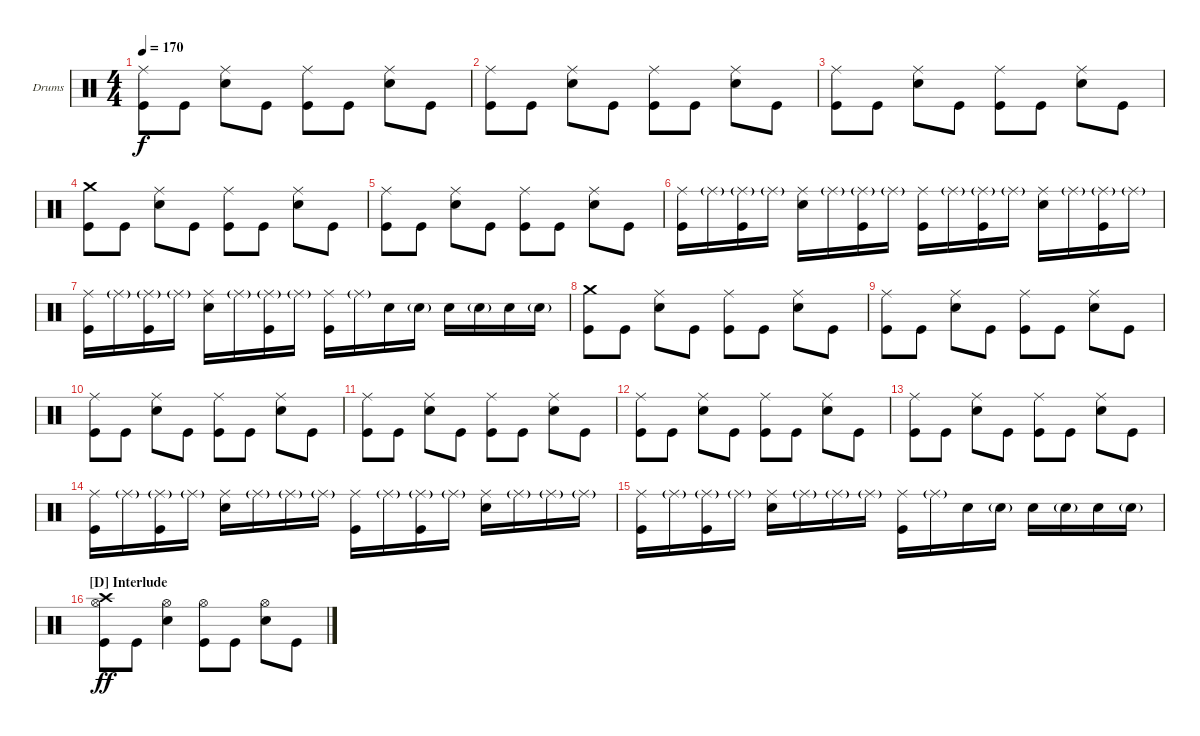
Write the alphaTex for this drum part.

\defaultSystemsLayout 4
\bracketExtendMode groupsimilarinstruments
\firstSystemTrackNameOrientation horizontal
\otherSystemsTrackNameOrientation horizontal
\track ("Benny Horowitz" "Drums") {instrument percussion}
\staff {score}
\articulation defaults
\ts (4 4)
\tempo 170
\clef neutral
\ks c
("Kick (hit)" "Ride (middle)").8{dy f} "Kick (hit)".8 ("Snare (hit) 2" "Ride (middle)").8 "Kick (hit)".8 ("Kick (hit)" "Ride (middle)").8 "Kick (hit)".8 ("Snare (hit) 2" "Ride (middle)").8 "Kick (hit)".8 |
("Kick (hit)" "Ride (middle)").8 "Kick (hit)".8 ("Snare (hit) 2" "Ride (middle)").8 "Kick (hit)".8 ("Kick (hit)" "Ride (middle)").8 "Kick (hit)".8 ("Snare (hit) 2" "Ride (middle)").8 "Kick (hit)".8 |
("Kick (hit)" "Ride (middle)").8 "Kick (hit)".8 ("Snare (hit) 2" "Ride (middle)").8 "Kick (hit)".8 ("Kick (hit)" "Ride (middle)").8 "Kick (hit)".8 ("Snare (hit) 2" "Ride (middle)").8 "Kick (hit)".8 |
("Crash medium (hit)" "Kick (hit)").8 "Kick (hit)".8 ("Snare (hit) 2" "Ride (middle)").8 "Kick (hit)".8 ("Kick (hit)" "Ride (middle)").8 "Kick (hit)".8 ("Snare (hit) 2" "Ride (middle)").8 "Kick (hit)".8 |
("Kick (hit)" "Ride (middle)").8 "Kick (hit)".8 ("Snare (hit) 2" "Ride (middle)").8 "Kick (hit)".8 ("Kick (hit)" "Ride (middle)").8 "Kick (hit)".8 ("Snare (hit) 2" "Ride (middle)").8 "Kick (hit)".8 |
("Kick (hit)" "Ride (middle)").16 "Ride (middle)"{g}.16 ("Kick (hit)" "Ride (middle)"{g}).16 "Ride (middle)"{g}.16 ("Snare (hit) 2" "Ride (middle)").16 "Ride (middle)"{g}.16 ("Kick (hit)" "Ride (middle)"{g}).16 "Ride (middle)"{g}.16 ("Kick (hit)" "Ride (middle)").16 "Ride (middle)"{g}.16 ("Kick (hit)" "Ride (middle)"{g}).16 "Ride (middle)"{g}.16 ("Snare (hit) 2" "Ride (middle)").16 "Ride (middle)"{g}.16 ("Kick (hit)" "Ride (middle)"{g}).16 "Ride (middle)"{g}.16 |
("Kick (hit)" "Ride (middle)").16 "Ride (middle)"{g}.16 ("Kick (hit)" "Ride (middle)"{g}).16 "Ride (middle)"{g}.16 ("Snare (hit) 2" "Ride (middle)").16 "Ride (middle)"{g}.16 ("Kick (hit)" "Ride (middle)"{g}).16 "Ride (middle)"{g}.16 ("Kick (hit)" "Ride (middle)").16 "Ride (middle)"{g}.16 "Snare (hit) 2".16 "Snare (hit) 2"{g}.16 "Snare (hit) 2".16 "Snare (hit) 2"{g}.16 "Snare (hit) 2".16 "Snare (hit) 2"{g}.16 |
("Crash medium (hit)" "Kick (hit)").8 "Kick (hit)".8 ("Snare (hit) 2" "Ride (middle)").8 "Kick (hit)".8 ("Kick (hit)" "Ride (middle)").8 "Kick (hit)".8 ("Snare (hit) 2" "Ride (middle)").8 "Kick (hit)".8 |
("Kick (hit)" "Ride (middle)").8 "Kick (hit)".8 ("Snare (hit) 2" "Ride (middle)").8 "Kick (hit)".8 ("Kick (hit)" "Ride (middle)").8 "Kick (hit)".8 ("Snare (hit) 2" "Ride (middle)").8 "Kick (hit)".8 |
("Kick (hit)" "Ride (middle)").8 "Kick (hit)".8 ("Snare (hit) 2" "Ride (middle)").8 "Kick (hit)".8 ("Kick (hit)" "Ride (middle)").8 "Kick (hit)".8 ("Snare (hit) 2" "Ride (middle)").8 "Kick (hit)".8 |
("Kick (hit)" "Ride (middle)").8 "Kick (hit)".8 ("Snare (hit) 2" "Ride (middle)").8 "Kick (hit)".8 ("Kick (hit)" "Ride (middle)").8 "Kick (hit)".8 ("Snare (hit) 2" "Ride (middle)").8 "Kick (hit)".8 |
("Kick (hit)" "Ride (middle)").8 "Kick (hit)".8 ("Snare (hit) 2" "Ride (middle)").8 "Kick (hit)".8 ("Kick (hit)" "Ride (middle)").8 "Kick (hit)".8 ("Snare (hit) 2" "Ride (middle)").8 "Kick (hit)".8 |
("Kick (hit)" "Ride (middle)").8 "Kick (hit)".8 ("Snare (hit) 2" "Ride (middle)").8 "Kick (hit)".8 ("Kick (hit)" "Ride (middle)").8 "Kick (hit)".8 ("Snare (hit) 2" "Ride (middle)").8 "Kick (hit)".8 |
("Kick (hit)" "Ride (middle)").16 "Ride (middle)"{g}.16 ("Kick (hit)" "Ride (middle)"{g}).16 "Ride (middle)"{g}.16 ("Snare (hit) 2" "Ride (middle)").16 "Ride (middle)"{g}.16 "Ride (middle)"{g}.16 "Ride (middle)"{g}.16 ("Kick (hit)" "Ride (middle)").16 "Ride (middle)"{g}.16 ("Kick (hit)" "Ride (middle)"{g}).16 "Ride (middle)"{g}.16 ("Snare (hit) 2" "Ride (middle)").16 "Ride (middle)"{g}.16 "Ride (middle)"{g}.16 "Ride (middle)"{g}.16 |
("Kick (hit)" "Ride (middle)").16 "Ride (middle)"{g}.16 ("Kick (hit)" "Ride (middle)"{g}).16 "Ride (middle)"{g}.16 ("Snare (hit) 2" "Ride (middle)").16 "Ride (middle)"{g}.16 "Ride (middle)"{g}.16 "Ride (middle)"{g}.16 ("Kick (hit)" "Ride (middle)").16 "Ride (middle)"{g}.16 "Snare (hit) 2".16 "Snare (hit) 2"{g}.16 "Snare (hit) 2".16 "Snare (hit) 2"{g}.16 "Snare (hit) 2".16 "Snare (hit) 2"{g}.16 |
\section ("D" "Interlude")
("Kick (hit)" "Hi-Hat (open)" "Crash high (hit)").8{dy ff} "Kick (hit)".8 ("Snare (hit) 2" "Hi-Hat (open)").4 ("Kick (hit)" "Hi-Hat (open)").8 "Kick (hit)".8 ("Snare (hit) 2" "Hi-Hat (open)").8 "Kick (hit)".8
